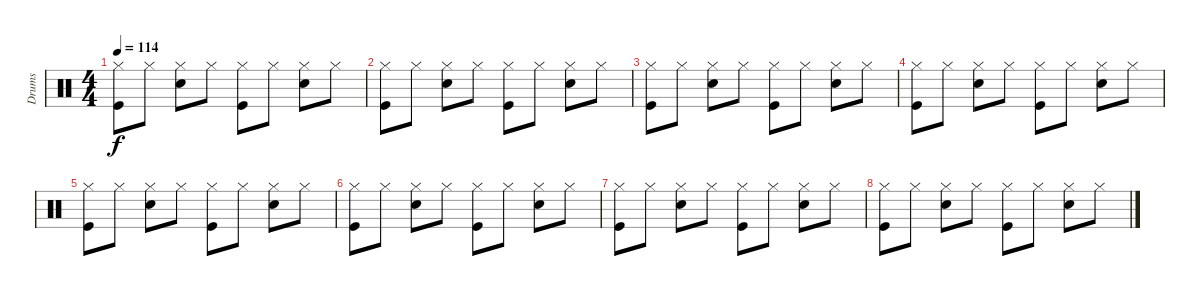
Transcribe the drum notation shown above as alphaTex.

\track ("Drums" "Drums") {instrument percussion}
\staff {score}
\articulation defaults
\ts (4 4)
\tempo 114
\clef neutral
\ks c
("Hi-Hat (closed)" "Kick (hit)").8{dy f} "Hi-Hat (closed)".8 ("Hi-Hat (closed)" "Snare (hit) 2").8 "Hi-Hat (closed)".8 ("Hi-Hat (closed)" "Kick (hit)").8 "Hi-Hat (closed)".8 ("Hi-Hat (closed)" "Snare (hit) 2").8 "Hi-Hat (closed)".8 |
("Hi-Hat (closed)" "Kick (hit)").8 "Hi-Hat (closed)".8 ("Hi-Hat (closed)" "Snare (hit) 2").8 "Hi-Hat (closed)".8 ("Hi-Hat (closed)" "Kick (hit)").8 "Hi-Hat (closed)".8 ("Hi-Hat (closed)" "Snare (hit) 2").8 "Hi-Hat (closed)".8 |
("Hi-Hat (closed)" "Kick (hit)").8 "Hi-Hat (closed)".8 ("Hi-Hat (closed)" "Snare (hit) 2").8 "Hi-Hat (closed)".8 ("Hi-Hat (closed)" "Kick (hit)").8 "Hi-Hat (closed)".8 ("Hi-Hat (closed)" "Snare (hit) 2").8 "Hi-Hat (closed)".8 |
("Hi-Hat (closed)" "Kick (hit)").8 "Hi-Hat (closed)".8 ("Hi-Hat (closed)" "Snare (hit) 2").8 "Hi-Hat (closed)".8 ("Hi-Hat (closed)" "Kick (hit)").8 "Hi-Hat (closed)".8 ("Hi-Hat (closed)" "Snare (hit) 2").8 "Hi-Hat (closed)".8 |
("Hi-Hat (closed)" "Kick (hit)").8 "Hi-Hat (closed)".8 ("Hi-Hat (closed)" "Snare (hit) 2").8 "Hi-Hat (closed)".8 ("Hi-Hat (closed)" "Kick (hit)").8 "Hi-Hat (closed)".8 ("Hi-Hat (closed)" "Snare (hit) 2").8 "Hi-Hat (closed)".8 |
("Hi-Hat (closed)" "Kick (hit)").8 "Hi-Hat (closed)".8 ("Hi-Hat (closed)" "Snare (hit) 2").8 "Hi-Hat (closed)".8 ("Hi-Hat (closed)" "Kick (hit)").8 "Hi-Hat (closed)".8 ("Hi-Hat (closed)" "Snare (hit) 2").8 "Hi-Hat (closed)".8 |
("Hi-Hat (closed)" "Kick (hit)").8 "Hi-Hat (closed)".8 ("Hi-Hat (closed)" "Snare (hit) 2").8 "Hi-Hat (closed)".8 ("Hi-Hat (closed)" "Kick (hit)").8 "Hi-Hat (closed)".8 ("Hi-Hat (closed)" "Snare (hit) 2").8 "Hi-Hat (closed)".8 |
("Hi-Hat (closed)" "Kick (hit)").8 "Hi-Hat (closed)".8 ("Hi-Hat (closed)" "Snare (hit) 2").8 "Hi-Hat (closed)".8 ("Hi-Hat (closed)" "Kick (hit)").8 "Hi-Hat (closed)".8 ("Hi-Hat (closed)" "Snare (hit) 2").8 "Hi-Hat (closed)".8
